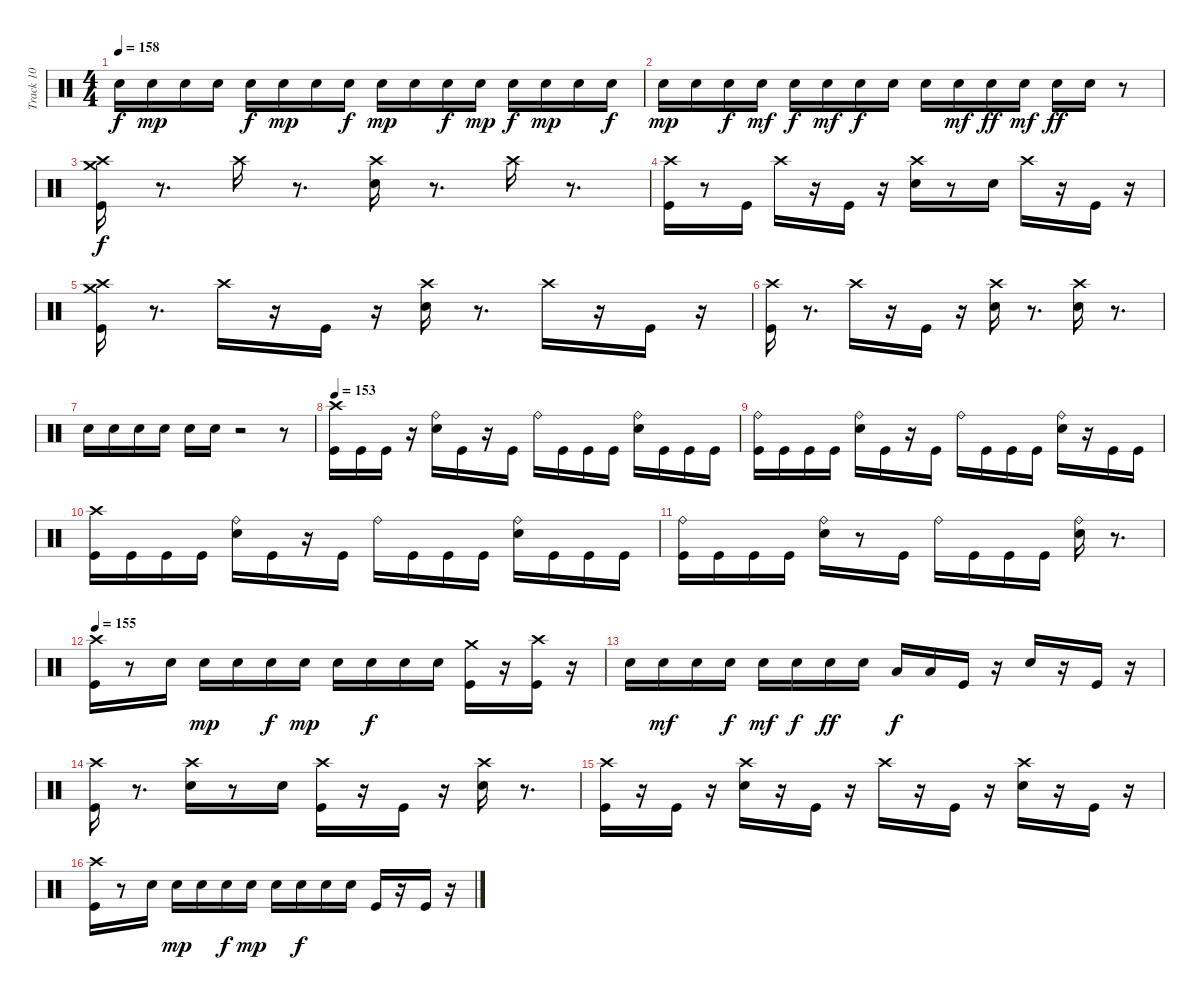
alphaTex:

\track ("Track 10" "Track 10") {instrument percussion}
\staff {score}
\articulation defaults
\ts (4 4)
\tempo 158
\clef neutral
\ks c "Snare (hit) 2".16{dy f} "Snare (hit) 2".16{dy mp} "Snare (hit) 2".16 "Snare (hit) 2".16 "Snare (hit) 2".16{dy f} "Snare (hit) 2".16{dy mp} "Snare (hit) 2".16 "Snare (hit) 2".16{dy f} "Snare (hit) 2".16{dy mp} "Snare (hit) 2".16 "Snare (hit) 2".16{dy f} "Snare (hit) 2".16{dy mp} "Snare (hit) 2".16{dy f} "Snare (hit) 2".16{dy mp} "Snare (hit) 2".16 "Snare (hit) 2".16{dy f}
|
"Snare (hit) 2".16{dy mp} "Snare (hit) 2".16 "Snare (hit) 2".16{dy f} "Snare (hit) 2".16{dy mf} "Snare (hit) 2".16{dy f} "Snare (hit) 2".16{dy mf} "Snare (hit) 2".16{dy f} "Snare (hit) 2".16 "Snare (hit) 2".16 "Snare (hit) 2".16{dy mf} "Snare (hit) 2".16{dy ff} "Snare (hit) 2".16{dy mf} "Snare (hit) 2".16{dy ff} "Snare (hit) 2".16 r.8 |
("Kick (hit)" "Crash high (hit)" "Crash medium (hit)").16{dy f} r.8{d} "Crash high (hit)".16 r.8{d} ("Snare (hit) 2" "Crash high (hit)").16 r.8{d} "Crash high (hit)".16 r.8{d} |
("Kick (hit)" "Crash high (hit)").16 r.8 "Kick (hit)".16 "Crash high (hit)".16 r.16 "Kick (hit)".16 r.16 ("Snare (hit) 2" "Crash high (hit)").16 r.8 "Snare (hit) 2".16 "Crash high (hit)".16 r.16 "Kick (hit)".16 r.16 |
("Kick (hit)" "Crash high (hit)" "Crash medium (hit)").16 r.8{d} "Crash high (hit)".16 r.16 "Kick (hit)".16 r.16 ("Snare (hit) 2" "Crash high (hit)").16 r.8{d} "Crash high (hit)".16 r.16 "Kick (hit)".16 r.16 |
("Kick (hit)" "Crash high (hit)").16 r.8{d} "Crash high (hit)".16 r.16 "Kick (hit)".16 r.16 ("Snare (hit) 2" "Crash high (hit)").16 r.8{d} ("Snare (hit) 2" "Crash high (hit)").16 r.8{d} |
"Snare (hit) 2".16 "Snare (hit) 2".16 "Snare (hit) 2".16 "Snare (hit) 2".16 "Snare (hit) 2".16 "Snare (hit) 2".16 r.2 r.8 |
\tempo 153
("Kick (hit)" "Crash high (hit)").16 "Kick (hit)".16 "Kick (hit)".16 r.16 ("Snare (hit) 2" "Ride (bell)").16 "Kick (hit)".16 r.16 "Kick (hit)".16 "Ride (bell)".16 "Kick (hit)".16 "Kick (hit)".16 "Kick (hit)".16 ("Snare (hit) 2" "Ride (bell)").16 "Kick (hit)".16 "Kick (hit)".16 "Kick (hit)".16 |
("Kick (hit)" "Ride (bell)").16 "Kick (hit)".16 "Kick (hit)".16 "Kick (hit)".16 ("Snare (hit) 2" "Ride (bell)").16 "Kick (hit)".16 r.16 "Kick (hit)".16 "Ride (bell)".16 "Kick (hit)".16 "Kick (hit)".16 "Kick (hit)".16 ("Snare (hit) 2" "Ride (bell)").16 r.16 "Kick (hit)".16 "Kick (hit)".16 |
("Kick (hit)" "Crash high (hit)").16 "Kick (hit)".16 "Kick (hit)".16 "Kick (hit)".16 ("Snare (hit) 2" "Ride (bell)").16 "Kick (hit)".16 r.16 "Kick (hit)".16 "Ride (bell)".16 "Kick (hit)".16 "Kick (hit)".16 "Kick (hit)".16 ("Snare (hit) 2" "Ride (bell)").16 "Kick (hit)".16 "Kick (hit)".16 "Kick (hit)".16 |
("Kick (hit)" "Ride (bell)").16 "Kick (hit)".16 "Kick (hit)".16 "Kick (hit)".16 ("Snare (hit) 2" "Ride (bell)").16 r.8 "Kick (hit)".16 "Ride (bell)".16 "Kick (hit)".16 "Kick (hit)".16 "Kick (hit)".16 ("Snare (hit) 2" "Ride (bell)").16 r.8{d} |
\tempo 155
("Kick (hit)" "Crash high (hit)").16 r.8 "Snare (hit) 2".16 "Snare (hit) 2".16{dy mp} "Snare (hit) 2".16 "Snare (hit) 2".16{dy f} "Snare (hit) 2".16{dy mp} "Snare (hit) 2".16 "Snare (hit) 2".16{dy f} "Snare (hit) 2".16 "Snare (hit) 2".16 ("Kick (hit)" "Crash medium (hit)").16 r.16 ("Kick (hit)" "Crash high (hit)").16 r.16 |
"Snare (hit) 2".16 "Snare (hit) 2".16{dy mf} "Snare (hit) 2".16 "Snare (hit) 2".16{dy f} "Snare (hit) 2".16{dy mf} "Snare (hit) 2".16{dy f} "Snare (hit) 2".16{dy ff} "Snare (hit) 2".16 "Low Floor Tom (hit)".16{dy f} "Low Floor Tom (hit)".16 "Kick (hit)".16 r.16 "Snare (hit) 2".16 r.16 "Kick (hit)".16 r.16 |
("Kick (hit)" "Crash high (hit)").16 r.8{d} ("Snare (hit) 2" "Crash high (hit)").16 r.8 "Snare (hit) 2".16 ("Kick (hit)" "Crash high (hit)").16 r.16 "Kick (hit)".16 r.16 ("Snare (hit) 2" "Crash high (hit)").16 r.8{d} |
("Kick (hit)" "Crash high (hit)").16 r.16 "Kick (hit)".16 r.16 ("Snare (hit) 2" "Crash high (hit)").16 r.16 "Kick (hit)".16 r.16 "Crash high (hit)".16 r.16 "Kick (hit)".16 r.16 ("Snare (hit) 2" "Crash high (hit)").16 r.16 "Kick (hit)".16 r.16 |
("Kick (hit)" "Crash high (hit)").16 r.8 "Snare (hit) 2".16 "Snare (hit) 2".16{dy mp} "Snare (hit) 2".16 "Snare (hit) 2".16{dy f} "Snare (hit) 2".16{dy mp} "Snare (hit) 2".16 "Snare (hit) 2".16{dy f} "Snare (hit) 2".16 "Snare (hit) 2".16 "Kick (hit)".16 r.16 "Kick (hit)".16 r.16
